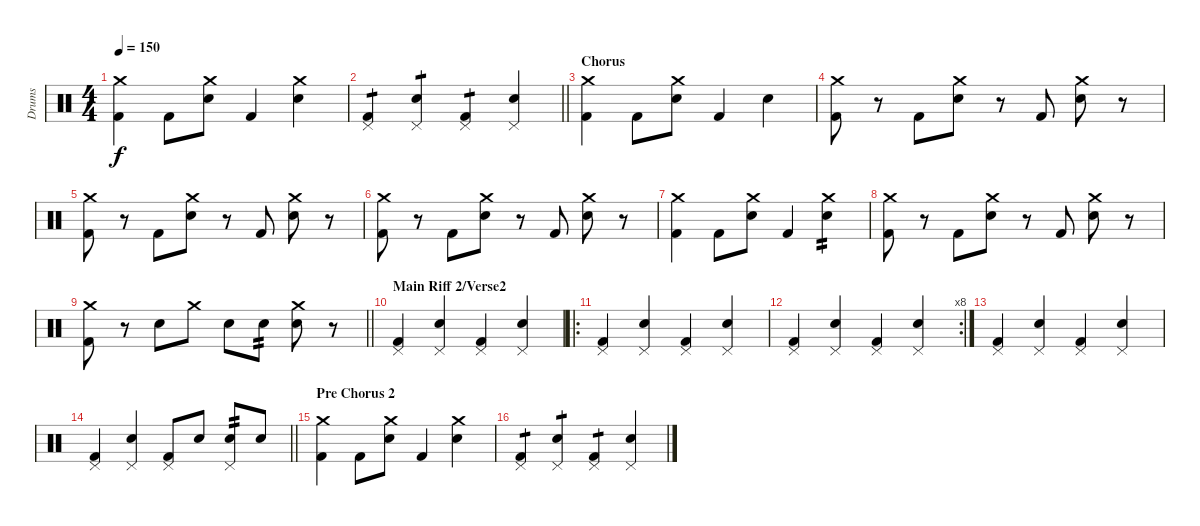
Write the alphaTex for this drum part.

\track ("Drums" "Drums") {instrument percussion}
\staff {score}
\articulation defaults
\ts (4 4)
\tempo 150
\clef neutral
\ks c
("Kick (hit) 2" "Crash medium (hit)").4{dy f} "Kick (hit) 2".8 ("Snare (hit) 2" "Crash medium (hit)").8 "Kick (hit) 2".4 ("Snare (hit) 2" "Crash medium (hit)").4 |
\barLineRight lightlight
("Kick (hit) 2" "Pedal Hi-Hat (hit)").4{tp 1} ("Snare (hit) 2" "Pedal Hi-Hat (hit)").4{tp 1} ("Kick (hit) 2" "Pedal Hi-Hat (hit)").4{tp 1} ("Snare (hit) 2" "Pedal Hi-Hat (hit)").4 |
\section ("" "Chorus")
("Kick (hit) 2" "Crash medium (hit)").4 "Kick (hit) 2".8 ("Snare (hit) 2" "Crash medium (hit)").8 "Kick (hit) 2".4 "Snare (hit) 2".4 |
("Kick (hit) 2" "Crash medium (hit)").8 r.8 "Kick (hit) 2".8 ("Snare (hit) 2" "Crash medium (hit)").8 r.8 "Kick (hit) 2".8 ("Snare (hit) 2" "Crash medium (hit)").8 r.8 |
("Kick (hit) 2" "Crash medium (hit)").8 r.8 "Kick (hit) 2".8 ("Snare (hit) 2" "Crash medium (hit)").8 r.8 "Kick (hit) 2".8 ("Snare (hit) 2" "Crash medium (hit)").8 r.8 |
("Kick (hit) 2" "Crash medium (hit)").8 r.8 "Kick (hit) 2".8 ("Snare (hit) 2" "Crash medium (hit)").8 r.8 "Kick (hit) 2".8 ("Snare (hit) 2" "Crash medium (hit)").8 r.8 |
("Kick (hit) 2" "Crash medium (hit)").4 "Kick (hit) 2".8 ("Snare (hit) 2" "Crash medium (hit)").8 "Kick (hit) 2".4 ("Snare (hit) 2" "Crash medium (hit)").4{tp 2} |
("Kick (hit) 2" "Crash medium (hit)").8 r.8 "Kick (hit) 2".8 ("Snare (hit) 2" "Crash medium (hit)").8 r.8 "Kick (hit) 2".8 ("Snare (hit) 2" "Crash medium (hit)").8 r.8 |
\barLineRight lightlight
("Kick (hit) 2" "Crash medium (hit)").8 r.8 "Snare (hit) 2".8 "Crash medium (hit)".8 "Snare (hit) 2".8 "Snare (hit) 2".8{tp 2} ("Snare (hit) 2" "Crash medium (hit)").8 r.8 |
\section ("" "Main Riff 2/Verse2")
("Kick (hit) 2" "Pedal Hi-Hat (hit)").4 ("Snare (hit) 2" "Pedal Hi-Hat (hit)").4 ("Kick (hit) 2" "Pedal Hi-Hat (hit)").4 ("Snare (hit) 2" "Pedal Hi-Hat (hit)").4 |
\ro
("Kick (hit) 2" "Pedal Hi-Hat (hit)").4 ("Snare (hit) 2" "Pedal Hi-Hat (hit)").4 ("Kick (hit) 2" "Pedal Hi-Hat (hit)").4 ("Snare (hit) 2" "Pedal Hi-Hat (hit)").4 |
\rc 8
("Kick (hit) 2" "Pedal Hi-Hat (hit)").4 ("Snare (hit) 2" "Pedal Hi-Hat (hit)").4 ("Kick (hit) 2" "Pedal Hi-Hat (hit)").4 ("Snare (hit) 2" "Pedal Hi-Hat (hit)").4 |
("Kick (hit) 2" "Pedal Hi-Hat (hit)").4 ("Snare (hit) 2" "Pedal Hi-Hat (hit)").4 ("Kick (hit) 2" "Pedal Hi-Hat (hit)").4 ("Snare (hit) 2" "Pedal Hi-Hat (hit)").4 |
\barLineRight lightlight
("Kick (hit) 2" "Pedal Hi-Hat (hit)").4 ("Snare (hit) 2" "Pedal Hi-Hat (hit)").4 ("Kick (hit) 2" "Pedal Hi-Hat (hit)").8 "Snare (hit) 2".8 ("Snare (hit) 2" "Pedal Hi-Hat (hit)").8{tp 2} "Snare (hit) 2".8 |
\section ("" "Pre Chorus 2")
("Kick (hit) 2" "Crash medium (hit)").4 "Kick (hit) 2".8 ("Snare (hit) 2" "Crash medium (hit)").8 "Kick (hit) 2".4 ("Snare (hit) 2" "Crash medium (hit)").4 |
("Kick (hit) 2" "Pedal Hi-Hat (hit)").4{tp 1} ("Snare (hit) 2" "Pedal Hi-Hat (hit)").4{tp 1} ("Kick (hit) 2" "Pedal Hi-Hat (hit)").4{tp 1} ("Snare (hit) 2" "Pedal Hi-Hat (hit)").4
